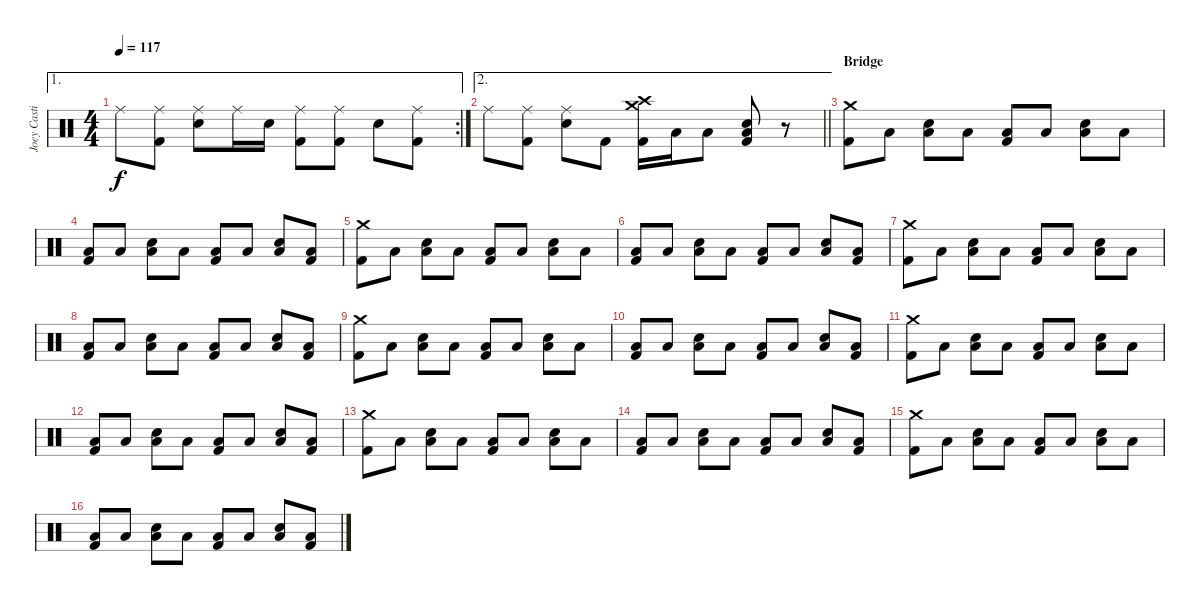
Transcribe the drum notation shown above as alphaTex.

\track ("Joey Castillo" "Joey Casti") {instrument percussion}
\staff {score}
\articulation defaults
\ae 1
\rc 2
\ts (4 4)
\tempo 117
\clef neutral
\ks c "Ride (middle)".8{dy f}
("Ride (middle)" "Kick (hit) 2").8 ("Ride (middle)" "Snare (hit) 2").8 "Ride (middle)".16 "Snare (hit) 2".16 ("Ride (middle)" "Kick (hit) 2").8 ("Ride (middle)" "Kick (hit) 2").8 "Snare (hit) 2".8 ("Ride (middle)" "Kick (hit) 2").8 |
\ae 2
\barLineRight lightlight "Ride (middle)".8
("Ride (middle)" "Kick (hit) 2").8 ("Ride (middle)" "Snare (hit) 2").8 "Kick (hit) 2".8 ("Crash high (hit)" "Crash medium (hit)" "Kick (hit) 2").16 "Low Floor Tom (hit)".16 "Low Floor Tom (hit)".8 ("Low Floor Tom (hit)" "Snare (hit) 2" "Kick (hit) 2").8 r.8 |
\section ("" "Bridge")
("Crash medium (hit)" "Kick (hit) 2").8 "Low Floor Tom (hit)".8 ("Low Floor Tom (hit)" "Snare (hit) 2").8 "Low Floor Tom (hit)".8 ("Low Floor Tom (hit)" "Kick (hit) 2").8 "Low Floor Tom (hit)".8 ("Low Floor Tom (hit)" "Snare (hit) 2").8 "Low Floor Tom (hit)".8 |
("Low Floor Tom (hit)" "Kick (hit) 2").8 "Low Floor Tom (hit)".8 ("Low Floor Tom (hit)" "Snare (hit) 2").8 "Low Floor Tom (hit)".8 ("Low Floor Tom (hit)" "Kick (hit) 2").8 "Low Floor Tom (hit)".8 ("Low Floor Tom (hit)" "Snare (hit) 2").8 ("Low Floor Tom (hit)" "Kick (hit) 2").8 |
("Crash medium (hit)" "Kick (hit) 2").8 "Low Floor Tom (hit)".8 ("Low Floor Tom (hit)" "Snare (hit) 2").8 "Low Floor Tom (hit)".8 ("Low Floor Tom (hit)" "Kick (hit) 2").8 "Low Floor Tom (hit)".8 ("Low Floor Tom (hit)" "Snare (hit) 2").8 "Low Floor Tom (hit)".8 |
("Low Floor Tom (hit)" "Kick (hit) 2").8 "Low Floor Tom (hit)".8 ("Low Floor Tom (hit)" "Snare (hit) 2").8 "Low Floor Tom (hit)".8 ("Low Floor Tom (hit)" "Kick (hit) 2").8 "Low Floor Tom (hit)".8 ("Low Floor Tom (hit)" "Snare (hit) 2").8 ("Low Floor Tom (hit)" "Kick (hit) 2").8 |
("Crash medium (hit)" "Kick (hit) 2").8 "Low Floor Tom (hit)".8 ("Low Floor Tom (hit)" "Snare (hit) 2").8 "Low Floor Tom (hit)".8 ("Low Floor Tom (hit)" "Kick (hit) 2").8 "Low Floor Tom (hit)".8 ("Low Floor Tom (hit)" "Snare (hit) 2").8 "Low Floor Tom (hit)".8 |
("Low Floor Tom (hit)" "Kick (hit) 2").8 "Low Floor Tom (hit)".8 ("Low Floor Tom (hit)" "Snare (hit) 2").8 "Low Floor Tom (hit)".8 ("Low Floor Tom (hit)" "Kick (hit) 2").8 "Low Floor Tom (hit)".8 ("Low Floor Tom (hit)" "Snare (hit) 2").8 ("Low Floor Tom (hit)" "Kick (hit) 2").8 |
("Crash medium (hit)" "Kick (hit) 2").8 "Low Floor Tom (hit)".8 ("Low Floor Tom (hit)" "Snare (hit) 2").8 "Low Floor Tom (hit)".8 ("Low Floor Tom (hit)" "Kick (hit) 2").8 "Low Floor Tom (hit)".8 ("Low Floor Tom (hit)" "Snare (hit) 2").8 "Low Floor Tom (hit)".8 |
("Low Floor Tom (hit)" "Kick (hit) 2").8 "Low Floor Tom (hit)".8 ("Low Floor Tom (hit)" "Snare (hit) 2").8 "Low Floor Tom (hit)".8 ("Low Floor Tom (hit)" "Kick (hit) 2").8 "Low Floor Tom (hit)".8 ("Low Floor Tom (hit)" "Snare (hit) 2").8 ("Low Floor Tom (hit)" "Kick (hit) 2").8 |
("Crash medium (hit)" "Kick (hit) 2").8 "Low Floor Tom (hit)".8 ("Low Floor Tom (hit)" "Snare (hit) 2").8 "Low Floor Tom (hit)".8 ("Low Floor Tom (hit)" "Kick (hit) 2").8 "Low Floor Tom (hit)".8 ("Low Floor Tom (hit)" "Snare (hit) 2").8 "Low Floor Tom (hit)".8 |
("Low Floor Tom (hit)" "Kick (hit) 2").8 "Low Floor Tom (hit)".8 ("Low Floor Tom (hit)" "Snare (hit) 2").8 "Low Floor Tom (hit)".8 ("Low Floor Tom (hit)" "Kick (hit) 2").8 "Low Floor Tom (hit)".8 ("Low Floor Tom (hit)" "Snare (hit) 2").8 ("Low Floor Tom (hit)" "Kick (hit) 2").8 |
("Crash medium (hit)" "Kick (hit) 2").8 "Low Floor Tom (hit)".8 ("Low Floor Tom (hit)" "Snare (hit) 2").8 "Low Floor Tom (hit)".8 ("Low Floor Tom (hit)" "Kick (hit) 2").8 "Low Floor Tom (hit)".8 ("Low Floor Tom (hit)" "Snare (hit) 2").8 "Low Floor Tom (hit)".8 |
("Low Floor Tom (hit)" "Kick (hit) 2").8 "Low Floor Tom (hit)".8 ("Low Floor Tom (hit)" "Snare (hit) 2").8 "Low Floor Tom (hit)".8 ("Low Floor Tom (hit)" "Kick (hit) 2").8 "Low Floor Tom (hit)".8 ("Low Floor Tom (hit)" "Snare (hit) 2").8 ("Low Floor Tom (hit)" "Kick (hit) 2").8 |
("Crash medium (hit)" "Kick (hit) 2").8 "Low Floor Tom (hit)".8 ("Low Floor Tom (hit)" "Snare (hit) 2").8 "Low Floor Tom (hit)".8 ("Low Floor Tom (hit)" "Kick (hit) 2").8 "Low Floor Tom (hit)".8 ("Low Floor Tom (hit)" "Snare (hit) 2").8 "Low Floor Tom (hit)".8 |
("Low Floor Tom (hit)" "Kick (hit) 2").8 "Low Floor Tom (hit)".8 ("Low Floor Tom (hit)" "Snare (hit) 2").8 "Low Floor Tom (hit)".8 ("Low Floor Tom (hit)" "Kick (hit) 2").8 "Low Floor Tom (hit)".8 ("Low Floor Tom (hit)" "Snare (hit) 2").8 ("Low Floor Tom (hit)" "Kick (hit) 2").8
